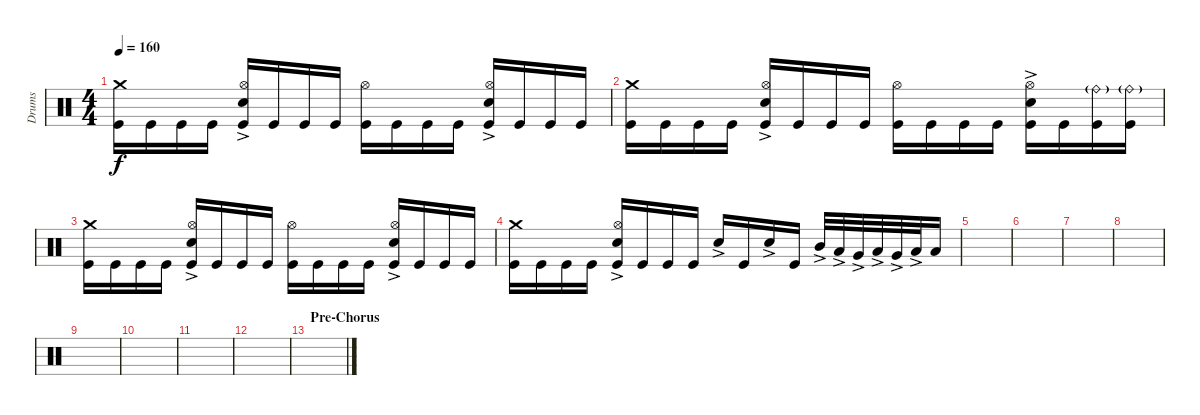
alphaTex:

\track ("Drums" "Drums") {instrument percussion}
\staff {score}
\articulation defaults
\ts (4 4)
\tempo 160
\clef neutral
\ks c
("Kick (hit)" "Crash medium (hit)").16{dy f} "Kick (hit)".16 "Kick (hit)".16 "Kick (hit)".16 ("Kick (hit)" "Hi-Hat (open)" "Snare (hit) 2"{ac}).16 "Kick (hit)".16 "Kick (hit)".16 "Kick (hit)".16 ("Kick (hit)" "Hi-Hat (open)").16 "Kick (hit)".16 "Kick (hit)".16 "Kick (hit)".16 ("Kick (hit)" "Hi-Hat (open)" "Snare (hit) 2"{ac}).16 "Kick (hit)".16 "Kick (hit)".16 "Kick (hit)".16 |
("Kick (hit)" "Crash medium (hit)").16 "Kick (hit)".16 "Kick (hit)".16 "Kick (hit)".16 ("Kick (hit)" "Hi-Hat (open)" "Snare (hit) 2"{ac}).16 "Kick (hit)".16 "Kick (hit)".16 "Kick (hit)".16 ("Kick (hit)" "Hi-Hat (open)").16 "Kick (hit)".16 "Kick (hit)".16 "Kick (hit)".16 ("Kick (hit)" "Hi-Hat (open)" "Snare (hit) 2"{ac}).16 "Kick (hit)".16 ("Kick (hit)" "Ride (bell)"{g}).16 ("Kick (hit)" "Ride (bell)"{g}).16 |
("Kick (hit)" "Crash medium (hit)").16 "Kick (hit)".16 "Kick (hit)".16 "Kick (hit)".16 ("Kick (hit)" "Hi-Hat (open)" "Snare (hit) 2"{ac}).16 "Kick (hit)".16 "Kick (hit)".16 "Kick (hit)".16 ("Kick (hit)" "Hi-Hat (open)").16 "Kick (hit)".16 "Kick (hit)".16 "Kick (hit)".16 ("Kick (hit)" "Hi-Hat (open)" "Snare (hit) 2"{ac}).16 "Kick (hit)".16 "Kick (hit)".16 "Kick (hit)".16 |
("Kick (hit)" "Crash medium (hit)").16 "Kick (hit)".16 "Kick (hit)".16 "Kick (hit)".16 ("Kick (hit)" "Hi-Hat (open)" "Snare (hit) 2"{ac}).16 "Kick (hit)".16 "Kick (hit)".16 "Kick (hit)".16 "Snare (hit) 2"{ac}.16 "Kick (hit)".16 "Snare (hit) 2"{ac}.16 "Kick (hit)".16 "Mid Tom (hit)"{ac}.32 "Low Tom (hit)"{ac}.32 "Very Low Tom (hit)"{ac}.32 "Low Tom (hit)"{ac}.32 "Very Low Tom (hit)"{ac}.32 "Low Floor Tom (hit)"{ac}.32 "Low Floor Tom (hit)".16 |
|
|
|
|
|
|
|
|
\section ("" "Pre-Chorus")
